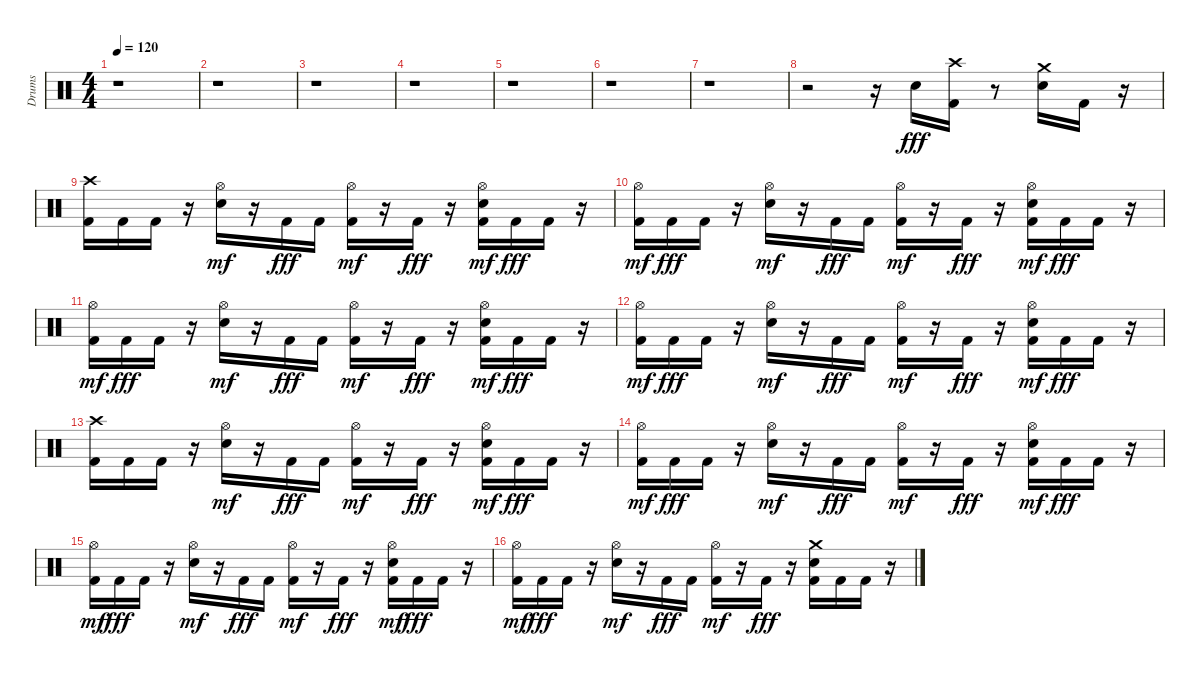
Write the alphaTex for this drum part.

\track ("Drums" "Drums") {instrument percussion}
\staff {score}
\articulation defaults
\ts (4 4)
\tempo 120
\clef neutral
\ks c
r.1{dy fff} |
r.1 |
r.1 |
r.1 |
r.1 |
r.1 |
r.1 |
r.2 r.16 "Electric Snare (hit)".16 ("Kick (hit) 2" "Crash high (hit)").16 r.8 ("Electric Snare (hit)" "Crash medium (hit)").16 "Kick (hit) 2".16 r.16 |
("Kick (hit) 2" "Crash high (hit)").16 "Kick (hit) 2".16 "Kick (hit) 2".16 r.16 ("Electric Snare (hit)" "Hi-Hat (open)").16{dy mf} r.16 "Kick (hit) 2".16{dy fff} "Kick (hit) 2".16 ("Kick (hit) 2" "Hi-Hat (open)").16{dy mf} r.16 "Kick (hit) 2".16{dy fff} r.16 ("Electric Snare (hit)" "Kick (hit) 2" "Hi-Hat (open)").16{dy mf} "Kick (hit) 2".16{dy fff} "Kick (hit) 2".16 r.16 |
("Kick (hit) 2" "Hi-Hat (open)").16{dy mf} "Kick (hit) 2".16{dy fff} "Kick (hit) 2".16 r.16 ("Electric Snare (hit)" "Hi-Hat (open)").16{dy mf} r.16 "Kick (hit) 2".16{dy fff} "Kick (hit) 2".16 ("Kick (hit) 2" "Hi-Hat (open)").16{dy mf} r.16 "Kick (hit) 2".16{dy fff} r.16 ("Electric Snare (hit)" "Kick (hit) 2" "Hi-Hat (open)").16{dy mf} "Kick (hit) 2".16{dy fff} "Kick (hit) 2".16 r.16 |
("Kick (hit) 2" "Hi-Hat (open)").16{dy mf} "Kick (hit) 2".16{dy fff} "Kick (hit) 2".16 r.16 ("Electric Snare (hit)" "Hi-Hat (open)").16{dy mf} r.16 "Kick (hit) 2".16{dy fff} "Kick (hit) 2".16 ("Kick (hit) 2" "Hi-Hat (open)").16{dy mf} r.16 "Kick (hit) 2".16{dy fff} r.16 ("Electric Snare (hit)" "Kick (hit) 2" "Hi-Hat (open)").16{dy mf} "Kick (hit) 2".16{dy fff} "Kick (hit) 2".16 r.16 |
("Kick (hit) 2" "Hi-Hat (open)").16{dy mf} "Kick (hit) 2".16{dy fff} "Kick (hit) 2".16 r.16 ("Electric Snare (hit)" "Hi-Hat (open)").16{dy mf} r.16 "Kick (hit) 2".16{dy fff} "Kick (hit) 2".16 ("Kick (hit) 2" "Hi-Hat (open)").16{dy mf} r.16 "Kick (hit) 2".16{dy fff} r.16 ("Electric Snare (hit)" "Kick (hit) 2" "Hi-Hat (open)").16{dy mf} "Kick (hit) 2".16{dy fff} "Kick (hit) 2".16 r.16 |
("Kick (hit) 2" "Crash high (hit)").16 "Kick (hit) 2".16 "Kick (hit) 2".16 r.16 ("Electric Snare (hit)" "Hi-Hat (open)").16{dy mf} r.16 "Kick (hit) 2".16{dy fff} "Kick (hit) 2".16 ("Kick (hit) 2" "Hi-Hat (open)").16{dy mf} r.16 "Kick (hit) 2".16{dy fff} r.16 ("Electric Snare (hit)" "Kick (hit) 2" "Hi-Hat (open)").16{dy mf} "Kick (hit) 2".16{dy fff} "Kick (hit) 2".16 r.16 |
("Kick (hit) 2" "Hi-Hat (open)").16{dy mf} "Kick (hit) 2".16{dy fff} "Kick (hit) 2".16 r.16 ("Electric Snare (hit)" "Hi-Hat (open)").16{dy mf} r.16 "Kick (hit) 2".16{dy fff} "Kick (hit) 2".16 ("Kick (hit) 2" "Hi-Hat (open)").16{dy mf} r.16 "Kick (hit) 2".16{dy fff} r.16 ("Electric Snare (hit)" "Kick (hit) 2" "Hi-Hat (open)").16{dy mf} "Kick (hit) 2".16{dy fff} "Kick (hit) 2".16 r.16 |
("Kick (hit) 2" "Hi-Hat (open)").16{dy mf} "Kick (hit) 2".16{dy fff} "Kick (hit) 2".16 r.16 ("Electric Snare (hit)" "Hi-Hat (open)").16{dy mf} r.16 "Kick (hit) 2".16{dy fff} "Kick (hit) 2".16 ("Kick (hit) 2" "Hi-Hat (open)").16{dy mf} r.16 "Kick (hit) 2".16{dy fff} r.16 ("Electric Snare (hit)" "Kick (hit) 2" "Hi-Hat (open)").16{dy mf} "Kick (hit) 2".16{dy fff} "Kick (hit) 2".16 r.16 |
("Kick (hit) 2" "Hi-Hat (open)").16{dy mf} "Kick (hit) 2".16{dy fff} "Kick (hit) 2".16 r.16 ("Electric Snare (hit)" "Hi-Hat (open)").16{dy mf} r.16 "Kick (hit) 2".16{dy fff} "Kick (hit) 2".16 ("Kick (hit) 2" "Hi-Hat (open)").16{dy mf} r.16 "Kick (hit) 2".16{dy fff} r.16 ("Electric Snare (hit)" "Kick (hit) 2" "Crash medium (hit)").16 "Kick (hit) 2".16 "Kick (hit) 2".16 r.16
